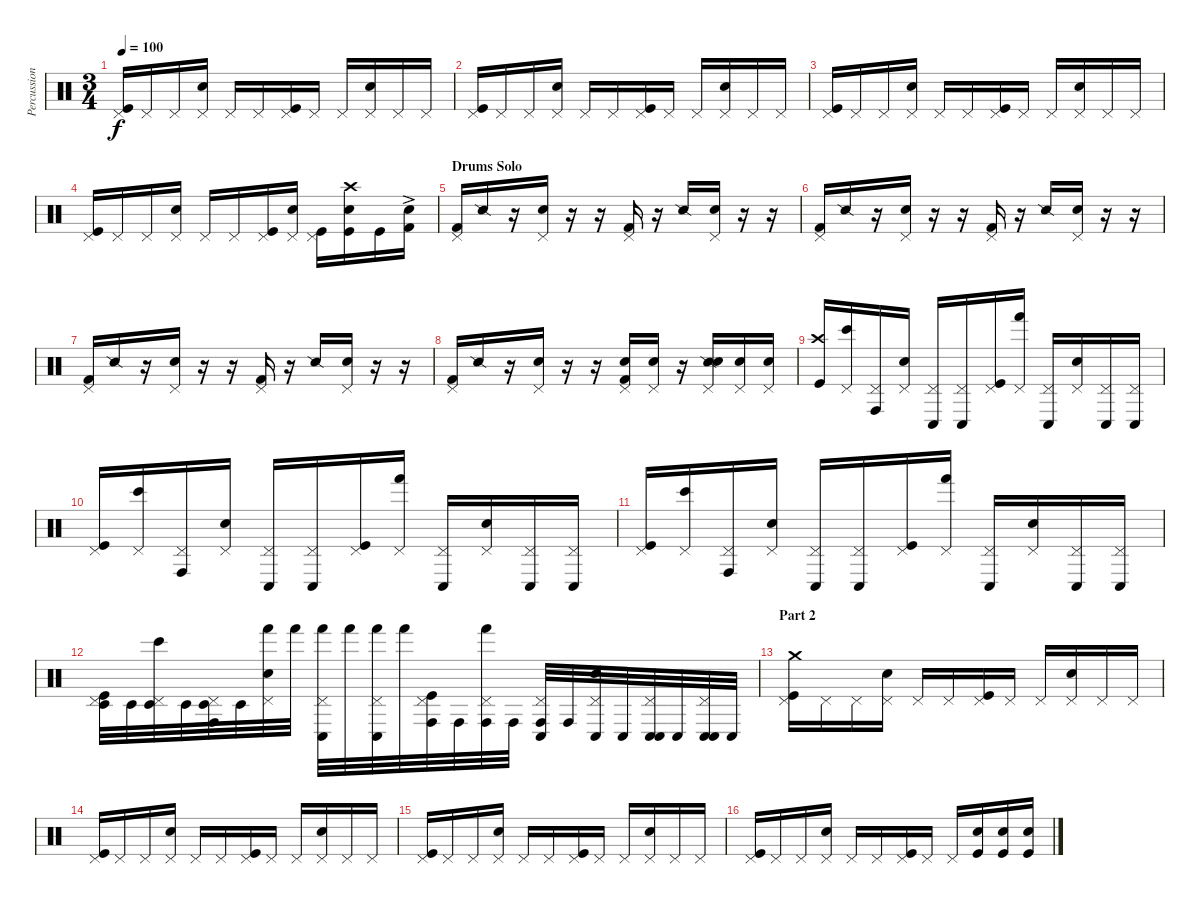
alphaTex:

\track ("Percussion" "Percussion") {instrument percussion}
\staff {score}
\articulation defaults
\ts (3 4)
\tempo 100
\clef neutral
\ks c
("Pedal Hi-Hat (hit)" "Kick (hit)").16{dy f} "Pedal Hi-Hat (hit)".16 "Pedal Hi-Hat (hit)".16 ("Pedal Hi-Hat (hit)" "Snare (hit) 2").16 "Pedal Hi-Hat (hit)".16 "Pedal Hi-Hat (hit)".16 ("Pedal Hi-Hat (hit)" "Kick (hit)").16 "Pedal Hi-Hat (hit)".16 "Pedal Hi-Hat (hit)".16 ("Pedal Hi-Hat (hit)" "Snare (hit) 2").16 "Pedal Hi-Hat (hit)".16 "Pedal Hi-Hat (hit)".16 |
("Pedal Hi-Hat (hit)" "Kick (hit)").16 "Pedal Hi-Hat (hit)".16 "Pedal Hi-Hat (hit)".16 ("Pedal Hi-Hat (hit)" "Snare (hit) 2").16 "Pedal Hi-Hat (hit)".16 "Pedal Hi-Hat (hit)".16 ("Pedal Hi-Hat (hit)" "Kick (hit)").16 "Pedal Hi-Hat (hit)".16 "Pedal Hi-Hat (hit)".16 ("Pedal Hi-Hat (hit)" "Snare (hit) 2").16 "Pedal Hi-Hat (hit)".16 "Pedal Hi-Hat (hit)".16 |
("Pedal Hi-Hat (hit)" "Kick (hit)").16 "Pedal Hi-Hat (hit)".16 "Pedal Hi-Hat (hit)".16 ("Pedal Hi-Hat (hit)" "Snare (hit) 2").16 "Pedal Hi-Hat (hit)".16 "Pedal Hi-Hat (hit)".16 ("Pedal Hi-Hat (hit)" "Kick (hit)").16 "Pedal Hi-Hat (hit)".16 "Pedal Hi-Hat (hit)".16 ("Pedal Hi-Hat (hit)" "Snare (hit) 2").16 "Pedal Hi-Hat (hit)".16 "Pedal Hi-Hat (hit)".16 |
("Pedal Hi-Hat (hit)" "Kick (hit)").16 "Pedal Hi-Hat (hit)".16 "Pedal Hi-Hat (hit)".16 ("Pedal Hi-Hat (hit)" "Snare (hit) 2").16 "Pedal Hi-Hat (hit)".16 "Pedal Hi-Hat (hit)".16 ("Pedal Hi-Hat (hit)" "Kick (hit)").16 ("Pedal Hi-Hat (hit)" "Snare (hit) 2").16 ("Pedal Hi-Hat (hit)" "Kick (hit)").16 ("Crash high (hit)" "Snare (hit) 2" "Kick (hit)").16 "Kick (hit)".16 ("Snare (hit) 2"{ac} "Kick (hit) 2").16 |
\section ("" "Drums Solo")
("Pedal Hi-Hat (hit)" "Kick (hit) 2").16 "Snare (side stick) 2".16 r.16 ("Pedal Hi-Hat (hit)" "Electric Snare (hit)").16 r.16 r.16 ("Pedal Hi-Hat (hit)" "Kick (hit) 2").16 r.16 "Snare (side stick) 2".16 ("Pedal Hi-Hat (hit)" "Electric Snare (hit)").16 r.16 r.16 |
("Pedal Hi-Hat (hit)" "Kick (hit) 2").16 "Snare (side stick) 2".16 r.16 ("Pedal Hi-Hat (hit)" "Electric Snare (hit)").16 r.16 r.16 ("Pedal Hi-Hat (hit)" "Kick (hit) 2").16 r.16 "Snare (side stick) 2".16 ("Pedal Hi-Hat (hit)" "Electric Snare (hit)").16 r.16 r.16 |
("Pedal Hi-Hat (hit)" "Kick (hit) 2").16 "Snare (side stick) 2".16 r.16 ("Pedal Hi-Hat (hit)" "Electric Snare (hit)").16 r.16 r.16 ("Pedal Hi-Hat (hit)" "Kick (hit) 2").16 r.16 "Snare (side stick) 2".16 ("Pedal Hi-Hat (hit)" "Electric Snare (hit)").16 r.16 r.16 |
("Pedal Hi-Hat (hit)" "Kick (hit) 2").16 "Snare (side stick) 2".16 r.16 ("Pedal Hi-Hat (hit)" "Electric Snare (hit)").16 r.16 r.16 ("Pedal Hi-Hat (hit)" "Hand Clap (hit)" "Kick (hit) 2").16 ("Pedal Hi-Hat (hit)" "Hand Clap (hit)").16 r.16 ("Pedal Hi-Hat (hit)" "Snare (side stick) 2" "Electric Snare (hit)").16 ("Pedal Hi-Hat (hit)" "Electric Snare (hit)").16 ("Pedal Hi-Hat (hit)" "Electric Snare (hit)").16 |
("Crash high (hit)" "Kick (hit)").16 ("Pedal Hi-Hat (hit)" "Bongo High (hit)").16 ("Pedal Hi-Hat (hit)" "Conga high (hit)").16 ("Pedal Hi-Hat (hit)" "Snare (hit) 2").16 ("Pedal Hi-Hat (hit)" "Conga low (hit)").16 ("Pedal Hi-Hat (hit)" "Conga low (hit)").16 ("Pedal Hi-Hat (hit)" "Kick (hit)").16 ("Pedal Hi-Hat (hit)" "Hand (hit)").16 ("Pedal Hi-Hat (hit)" "Conga low (hit)").16 ("Pedal Hi-Hat (hit)" "Snare (hit) 2").16 ("Pedal Hi-Hat (hit)" "Conga low (hit)").16 ("Pedal Hi-Hat (hit)" "Conga low (hit)").16 |
("Pedal Hi-Hat (hit)" "Kick (hit)").16 ("Pedal Hi-Hat (hit)" "Bongo High (hit)").16 ("Pedal Hi-Hat (hit)" "Conga high (hit)").16 ("Pedal Hi-Hat (hit)" "Snare (hit) 2").16 ("Pedal Hi-Hat (hit)" "Conga low (hit)").16 ("Pedal Hi-Hat (hit)" "Conga low (hit)").16 ("Pedal Hi-Hat (hit)" "Kick (hit)").16 ("Pedal Hi-Hat (hit)" "Hand (hit)").16 ("Pedal Hi-Hat (hit)" "Conga low (hit)").16 ("Pedal Hi-Hat (hit)" "Snare (hit) 2").16 ("Pedal Hi-Hat (hit)" "Conga low (hit)").16 ("Pedal Hi-Hat (hit)" "Conga low (hit)").16 |
("Pedal Hi-Hat (hit)" "Kick (hit)").16 ("Pedal Hi-Hat (hit)" "Bongo High (hit)").16 ("Pedal Hi-Hat (hit)" "Conga high (hit)").16 ("Pedal Hi-Hat (hit)" "Snare (hit) 2").16 ("Pedal Hi-Hat (hit)" "Conga low (hit)").16 ("Pedal Hi-Hat (hit)" "Conga low (hit)").16 ("Pedal Hi-Hat (hit)" "Kick (hit)").16 ("Pedal Hi-Hat (hit)" "Hand (hit)").16 ("Pedal Hi-Hat (hit)" "Conga low (hit)").16 ("Pedal Hi-Hat (hit)" "Snare (hit) 2").16 ("Pedal Hi-Hat (hit)" "Conga low (hit)").16 ("Pedal Hi-Hat (hit)" "Conga low (hit)").16 |
("Pedal Hi-Hat (hit)" "Timbale low (hit)" "Kick (hit)").32{balance 0} "Timbale low (hit)".32 ("Pedal Hi-Hat (hit)" "Bongo High (hit)" "Timbale low (hit)").32 "Timbale low (hit)".32 ("Pedal Hi-Hat (hit)" "Conga high (hit)" "Timbale low (hit)").32 "Timbale low (hit)".32 ("Pedal Hi-Hat (hit)" "Hand (hit)" "Snare (hit) 2").32{balance 5} "Hand (hit)".32 ("Pedal Hi-Hat (hit)" "Conga low (hit)" "Hand (hit)").32 "Hand (hit)".32 ("Pedal Hi-Hat (hit)" "Conga low (hit)" "Hand (hit)").32 "Hand (hit)".32 ("Pedal Hi-Hat (hit)" "Conga high (hit)" "Kick (hit)").32{balance 11} "Conga high (hit)".32 ("Pedal Hi-Hat (hit)" "Hand (hit)" "Conga high (hit)").32 "Conga high (hit)".32 ("Pedal Hi-Hat (hit)" "Conga low (hit)" "Conga high (hit)").32 "Conga high (hit)".32 ("Pedal Hi-Hat (hit)" "Conga low (hit)" "Snare (hit) 2").32{balance 16} "Conga low (hit)".32 ("Pedal Hi-Hat (hit)" "Conga low (hit)" "Conga low (hit)").32 "Conga low (hit)".32 ("Pedal Hi-Hat (hit)" "Conga low (hit)" "Conga low (hit)").32 "Conga low (hit)".32 |
\section ("" "Part 2")
("Pedal Hi-Hat (hit)" "Crash medium (hit)" "Kick (hit)").16{balance 8} "Pedal Hi-Hat (hit)".16 "Pedal Hi-Hat (hit)".16 ("Pedal Hi-Hat (hit)" "Snare (hit) 2").16 "Pedal Hi-Hat (hit)".16 "Pedal Hi-Hat (hit)".16 ("Pedal Hi-Hat (hit)" "Kick (hit)").16 "Pedal Hi-Hat (hit)".16 "Pedal Hi-Hat (hit)".16 ("Pedal Hi-Hat (hit)" "Snare (hit) 2").16 "Pedal Hi-Hat (hit)".16 "Pedal Hi-Hat (hit)".16 |
("Pedal Hi-Hat (hit)" "Kick (hit)").16 "Pedal Hi-Hat (hit)".16 "Pedal Hi-Hat (hit)".16 ("Pedal Hi-Hat (hit)" "Snare (hit) 2").16 "Pedal Hi-Hat (hit)".16 "Pedal Hi-Hat (hit)".16 ("Pedal Hi-Hat (hit)" "Kick (hit)").16 "Pedal Hi-Hat (hit)".16 "Pedal Hi-Hat (hit)".16 ("Pedal Hi-Hat (hit)" "Snare (hit) 2").16 "Pedal Hi-Hat (hit)".16 "Pedal Hi-Hat (hit)".16 |
("Pedal Hi-Hat (hit)" "Kick (hit)").16 "Pedal Hi-Hat (hit)".16 "Pedal Hi-Hat (hit)".16 ("Pedal Hi-Hat (hit)" "Snare (hit) 2").16 "Pedal Hi-Hat (hit)".16 "Pedal Hi-Hat (hit)".16 ("Pedal Hi-Hat (hit)" "Kick (hit)").16 "Pedal Hi-Hat (hit)".16 "Pedal Hi-Hat (hit)".16 ("Pedal Hi-Hat (hit)" "Snare (hit) 2").16 "Pedal Hi-Hat (hit)".16 "Pedal Hi-Hat (hit)".16 |
("Pedal Hi-Hat (hit)" "Kick (hit)").16 "Pedal Hi-Hat (hit)".16 "Pedal Hi-Hat (hit)".16 ("Pedal Hi-Hat (hit)" "Snare (hit) 2").16 "Pedal Hi-Hat (hit)".16 "Pedal Hi-Hat (hit)".16 ("Pedal Hi-Hat (hit)" "Kick (hit)").16 "Pedal Hi-Hat (hit)".16 "Pedal Hi-Hat (hit)".16 ("Snare (hit) 2" "Kick (hit)").16 ("Snare (hit) 2" "Kick (hit)").16 ("Snare (hit) 2" "Kick (hit)").16
